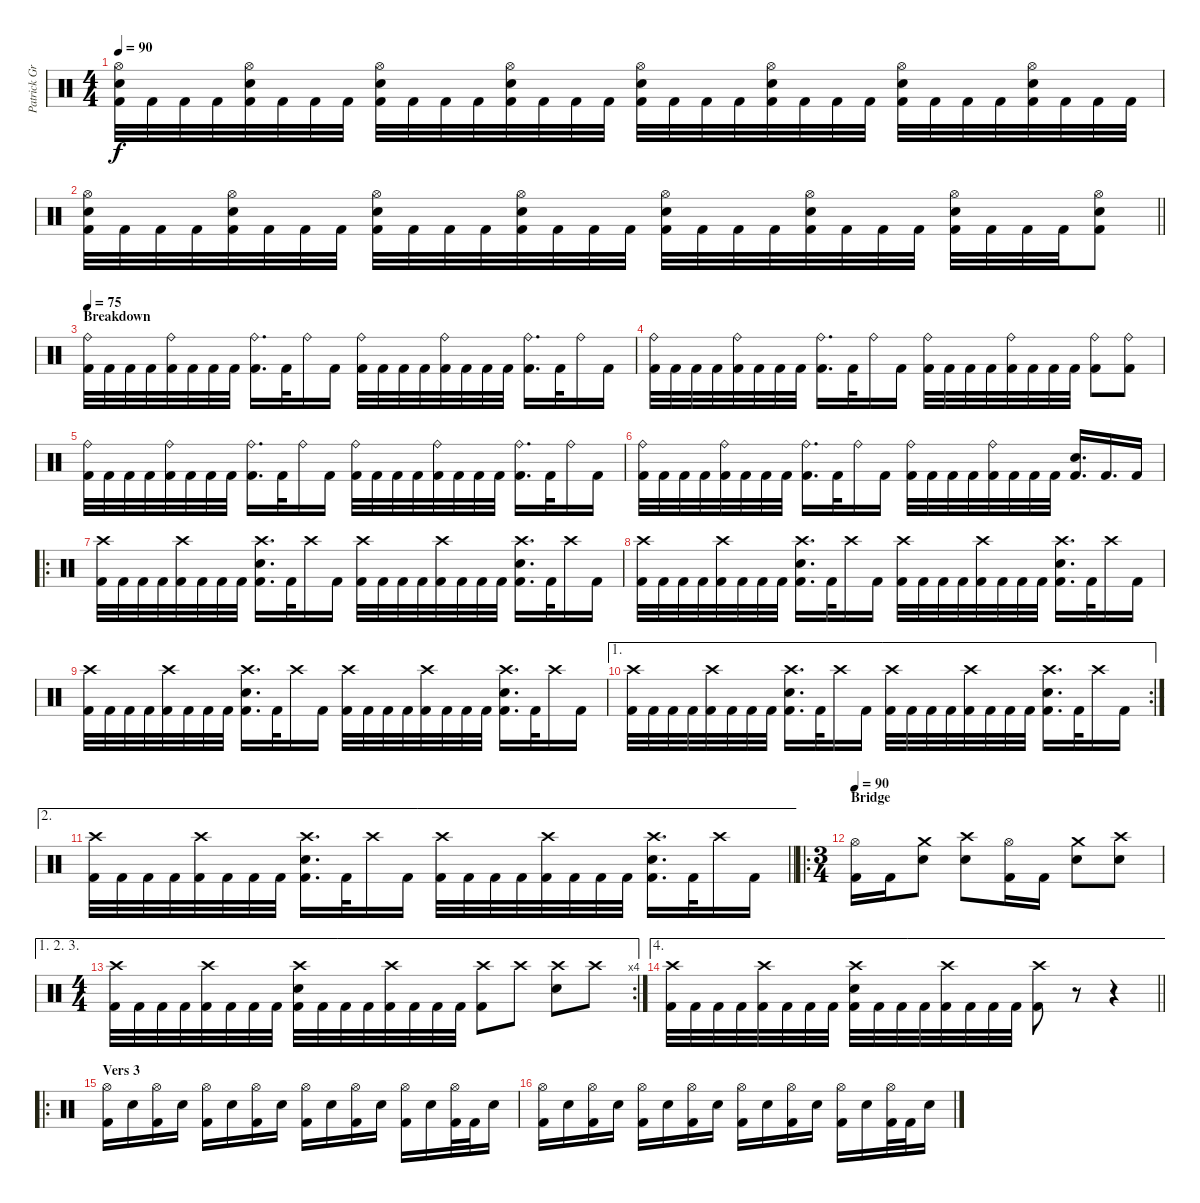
\track ("Patrick Grün - Drums" "Patrick Gr") {instrument percussion}
\staff {score}
\articulation defaults
\ts (4 4)
\tempo 90
\clef neutral
\ks c
("Hi-Hat (open)" "Electric Snare (hit)" "Kick (hit) 2").32{dy f} "Kick (hit) 2".32 "Kick (hit) 2".32 "Kick (hit) 2".32 ("Hi-Hat (open)" "Electric Snare (hit)" "Kick (hit) 2").32 "Kick (hit) 2".32 "Kick (hit) 2".32 "Kick (hit) 2".32 ("Hi-Hat (open)" "Electric Snare (hit)" "Kick (hit) 2").32 "Kick (hit) 2".32 "Kick (hit) 2".32 "Kick (hit) 2".32 ("Hi-Hat (open)" "Electric Snare (hit)" "Kick (hit) 2").32 "Kick (hit) 2".32 "Kick (hit) 2".32 "Kick (hit) 2".32 ("Hi-Hat (open)" "Electric Snare (hit)" "Kick (hit) 2").32 "Kick (hit) 2".32 "Kick (hit) 2".32 "Kick (hit) 2".32 ("Hi-Hat (open)" "Electric Snare (hit)" "Kick (hit) 2").32 "Kick (hit) 2".32 "Kick (hit) 2".32 "Kick (hit) 2".32 ("Hi-Hat (open)" "Electric Snare (hit)" "Kick (hit) 2").32 "Kick (hit) 2".32 "Kick (hit) 2".32 "Kick (hit) 2".32 ("Hi-Hat (open)" "Electric Snare (hit)" "Kick (hit) 2").32 "Kick (hit) 2".32 "Kick (hit) 2".32 "Kick (hit) 2".32 |
\barLineRight lightlight
("Hi-Hat (open)" "Electric Snare (hit)" "Kick (hit) 2").32 "Kick (hit) 2".32 "Kick (hit) 2".32 "Kick (hit) 2".32 ("Hi-Hat (open)" "Electric Snare (hit)" "Kick (hit) 2").32 "Kick (hit) 2".32 "Kick (hit) 2".32 "Kick (hit) 2".32 ("Hi-Hat (open)" "Electric Snare (hit)" "Kick (hit) 2").32 "Kick (hit) 2".32 "Kick (hit) 2".32 "Kick (hit) 2".32 ("Hi-Hat (open)" "Electric Snare (hit)" "Kick (hit) 2").32 "Kick (hit) 2".32 "Kick (hit) 2".32 "Kick (hit) 2".32 ("Hi-Hat (open)" "Electric Snare (hit)" "Kick (hit) 2").32 "Kick (hit) 2".32 "Kick (hit) 2".32 "Kick (hit) 2".32 ("Hi-Hat (open)" "Electric Snare (hit)" "Kick (hit) 2").32 "Kick (hit) 2".32 "Kick (hit) 2".32 "Kick (hit) 2".32 ("Hi-Hat (open)" "Electric Snare (hit)" "Kick (hit) 2").32 "Kick (hit) 2".32 "Kick (hit) 2".32 "Kick (hit) 2".32 ("Hi-Hat (open)" "Electric Snare (hit)" "Kick (hit) 2").8 |
\section ("" "Breakdown")
\tempo 75
("Ride (bell)" "Kick (hit) 2").32 "Kick (hit) 2".32 "Kick (hit) 2".32 "Kick (hit) 2".32 ("Ride (bell)" "Kick (hit) 2").32 "Kick (hit) 2".32 "Kick (hit) 2".32 "Kick (hit) 2".32 ("Ride (bell)" "Kick (hit) 2").16{d} "Kick (hit) 2".32 "Ride (bell)".16 "Kick (hit) 2".16 ("Ride (bell)" "Kick (hit) 2").32 "Kick (hit) 2".32 "Kick (hit) 2".32 "Kick (hit) 2".32 ("Ride (bell)" "Kick (hit) 2").32 "Kick (hit) 2".32 "Kick (hit) 2".32 "Kick (hit) 2".32 ("Ride (bell)" "Kick (hit) 2").16{d} "Kick (hit) 2".32 "Ride (bell)".16 "Kick (hit) 2".16 |
("Ride (bell)" "Kick (hit) 2").32 "Kick (hit) 2".32 "Kick (hit) 2".32 "Kick (hit) 2".32 ("Ride (bell)" "Kick (hit) 2").32 "Kick (hit) 2".32 "Kick (hit) 2".32 "Kick (hit) 2".32 ("Ride (bell)" "Kick (hit) 2").16{d} "Kick (hit) 2".32 "Ride (bell)".16 "Kick (hit) 2".16 ("Ride (bell)" "Kick (hit) 2").32 "Kick (hit) 2".32 "Kick (hit) 2".32 "Kick (hit) 2".32 ("Ride (bell)" "Kick (hit) 2").32 "Kick (hit) 2".32 "Kick (hit) 2".32 "Kick (hit) 2".32 ("Ride (bell)" "Kick (hit) 2").8 ("Ride (bell)" "Kick (hit) 2").8 |
("Ride (bell)" "Kick (hit) 2").32 "Kick (hit) 2".32 "Kick (hit) 2".32 "Kick (hit) 2".32 ("Ride (bell)" "Kick (hit) 2").32 "Kick (hit) 2".32 "Kick (hit) 2".32 "Kick (hit) 2".32 ("Ride (bell)" "Kick (hit) 2").16{d} "Kick (hit) 2".32 "Ride (bell)".16 "Kick (hit) 2".16 ("Ride (bell)" "Kick (hit) 2").32 "Kick (hit) 2".32 "Kick (hit) 2".32 "Kick (hit) 2".32 ("Ride (bell)" "Kick (hit) 2").32 "Kick (hit) 2".32 "Kick (hit) 2".32 "Kick (hit) 2".32 ("Ride (bell)" "Kick (hit) 2").16{d} "Kick (hit) 2".32 "Ride (bell)".16 "Kick (hit) 2".16 |
("Ride (bell)" "Kick (hit) 2").32 "Kick (hit) 2".32 "Kick (hit) 2".32 "Kick (hit) 2".32 ("Ride (bell)" "Kick (hit) 2").32 "Kick (hit) 2".32 "Kick (hit) 2".32 "Kick (hit) 2".32 ("Ride (bell)" "Kick (hit) 2").16{d} "Kick (hit) 2".32 "Ride (bell)".16 "Kick (hit) 2".16 ("Ride (bell)" "Kick (hit) 2").32 "Kick (hit) 2".32 "Kick (hit) 2".32 "Kick (hit) 2".32 ("Ride (bell)" "Kick (hit) 2").32 "Kick (hit) 2".32 "Kick (hit) 2".32 "Kick (hit) 2".32 ("Electric Snare (hit)" "Kick (hit) 2").16{d} "Kick (hit) 2".16{d} "Kick (hit) 2".16 |
\ro
("Crash high (hit)" "Kick (hit) 2").32 "Kick (hit) 2".32 "Kick (hit) 2".32 "Kick (hit) 2".32 ("Crash high (hit)" "Kick (hit) 2").32 "Kick (hit) 2".32 "Kick (hit) 2".32 "Kick (hit) 2".32 ("Crash high (hit)" "Electric Snare (hit)" "Kick (hit) 2").16{d} "Kick (hit) 2".32 "Crash high (hit)".16 "Kick (hit) 2".16 ("Crash high (hit)" "Kick (hit) 2").32 "Kick (hit) 2".32 "Kick (hit) 2".32 "Kick (hit) 2".32 ("Crash high (hit)" "Kick (hit) 2").32 "Kick (hit) 2".32 "Kick (hit) 2".32 "Kick (hit) 2".32 ("Crash high (hit)" "Electric Snare (hit)" "Kick (hit) 2").16{d} "Kick (hit) 2".32 "Crash high (hit)".16 "Kick (hit) 2".16 |
("Crash high (hit)" "Kick (hit) 2").32 "Kick (hit) 2".32 "Kick (hit) 2".32 "Kick (hit) 2".32 ("Crash high (hit)" "Kick (hit) 2").32 "Kick (hit) 2".32 "Kick (hit) 2".32 "Kick (hit) 2".32 ("Crash high (hit)" "Electric Snare (hit)" "Kick (hit) 2").16{d} "Kick (hit) 2".32 "Crash high (hit)".16 "Kick (hit) 2".16 ("Crash high (hit)" "Kick (hit) 2").32 "Kick (hit) 2".32 "Kick (hit) 2".32 "Kick (hit) 2".32 ("Crash high (hit)" "Kick (hit) 2").32 "Kick (hit) 2".32 "Kick (hit) 2".32 "Kick (hit) 2".32 ("Crash high (hit)" "Electric Snare (hit)" "Kick (hit) 2").16{d} "Kick (hit) 2".32 "Crash high (hit)".16 "Kick (hit) 2".16 |
("Crash high (hit)" "Kick (hit) 2").32 "Kick (hit) 2".32 "Kick (hit) 2".32 "Kick (hit) 2".32 ("Crash high (hit)" "Kick (hit) 2").32 "Kick (hit) 2".32 "Kick (hit) 2".32 "Kick (hit) 2".32 ("Crash high (hit)" "Electric Snare (hit)" "Kick (hit) 2").16{d} "Kick (hit) 2".32 "Crash high (hit)".16 "Kick (hit) 2".16 ("Crash high (hit)" "Kick (hit) 2").32 "Kick (hit) 2".32 "Kick (hit) 2".32 "Kick (hit) 2".32 ("Crash high (hit)" "Kick (hit) 2").32 "Kick (hit) 2".32 "Kick (hit) 2".32 "Kick (hit) 2".32 ("Crash high (hit)" "Electric Snare (hit)" "Kick (hit) 2").16{d} "Kick (hit) 2".32 "Crash high (hit)".16 "Kick (hit) 2".16 |
\ae 1
\rc 2
("Crash high (hit)" "Kick (hit) 2").32 "Kick (hit) 2".32 "Kick (hit) 2".32 "Kick (hit) 2".32 ("Crash high (hit)" "Kick (hit) 2").32 "Kick (hit) 2".32 "Kick (hit) 2".32 "Kick (hit) 2".32 ("Crash high (hit)" "Electric Snare (hit)" "Kick (hit) 2").16{d} "Kick (hit) 2".32 "Crash high (hit)".16 "Kick (hit) 2".16 ("Crash high (hit)" "Kick (hit) 2").32 "Kick (hit) 2".32 "Kick (hit) 2".32 "Kick (hit) 2".32 ("Crash high (hit)" "Kick (hit) 2").32 "Kick (hit) 2".32 "Kick (hit) 2".32 "Kick (hit) 2".32 ("Crash high (hit)" "Electric Snare (hit)" "Kick (hit) 2").16{d} "Kick (hit) 2".32 "Crash high (hit)".16 "Kick (hit) 2".16 |
\ae 2
\barLineRight lightlight
("Crash high (hit)" "Kick (hit) 2").32 "Kick (hit) 2".32 "Kick (hit) 2".32 "Kick (hit) 2".32 ("Crash high (hit)" "Kick (hit) 2").32 "Kick (hit) 2".32 "Kick (hit) 2".32 "Kick (hit) 2".32 ("Crash high (hit)" "Electric Snare (hit)" "Kick (hit) 2").16{d} "Kick (hit) 2".32 "Crash high (hit)".16 "Kick (hit) 2".16 ("Crash high (hit)" "Kick (hit) 2").32 "Kick (hit) 2".32 "Kick (hit) 2".32 "Kick (hit) 2".32 ("Crash high (hit)" "Kick (hit) 2").32 "Kick (hit) 2".32 "Kick (hit) 2".32 "Kick (hit) 2".32 ("Crash high (hit)" "Electric Snare (hit)" "Kick (hit) 2").16{d} "Kick (hit) 2".32 "Crash high (hit)".16 "Kick (hit) 2".16 |
\ro
\ts (3 4)
\section ("" "Bridge")
\tempo 90
("Hi-Hat (open)" "Kick (hit) 2").16 "Kick (hit) 2".16 ("Crash medium (hit)" "Electric Snare (hit)").8 ("Crash high (hit)" "Electric Snare (hit)").8 ("Hi-Hat (open)" "Kick (hit) 2").16 "Kick (hit) 2".16 ("Crash medium (hit)" "Electric Snare (hit)").8 ("Crash high (hit)" "Electric Snare (hit)").8 |
\ae (1 2 3)
\rc 4
\ts (4 4)
("Crash high (hit)" "Kick (hit) 2").32 "Kick (hit) 2".32 "Kick (hit) 2".32 "Kick (hit) 2".32 ("Crash high (hit)" "Kick (hit) 2").32 "Kick (hit) 2".32 "Kick (hit) 2".32 "Kick (hit) 2".32 ("Crash high (hit)" "Electric Snare (hit)" "Kick (hit) 2").32 "Kick (hit) 2".32 "Kick (hit) 2".32 "Kick (hit) 2".32 ("Crash high (hit)" "Kick (hit) 2").32 "Kick (hit) 2".32 "Kick (hit) 2".32 "Kick (hit) 2".32 ("Crash high (hit)" "Kick (hit) 2").8 "Crash high (hit)".8 ("Crash high (hit)" "Electric Snare (hit)").8 "Crash high (hit)".8 |
\ae 4
\barLineRight lightlight
("Crash high (hit)" "Kick (hit) 2").32 "Kick (hit) 2".32 "Kick (hit) 2".32 "Kick (hit) 2".32 ("Crash high (hit)" "Kick (hit) 2").32 "Kick (hit) 2".32 "Kick (hit) 2".32 "Kick (hit) 2".32 ("Crash high (hit)" "Electric Snare (hit)" "Kick (hit) 2").32 "Kick (hit) 2".32 "Kick (hit) 2".32 "Kick (hit) 2".32 ("Crash high (hit)" "Kick (hit) 2").32 "Kick (hit) 2".32 "Kick (hit) 2".32 "Kick (hit) 2".32 ("Crash high (hit)" "Kick (hit) 2").8 r.8 r.4 |
\ro
\section ("" "Vers 3")
("Hi-Hat (open)" "Kick (hit) 2").16 "Electric Snare (hit)".16 ("Hi-Hat (open)" "Kick (hit) 2").16 "Electric Snare (hit)".16 ("Hi-Hat (open)" "Kick (hit) 2").16 "Electric Snare (hit)".16 ("Hi-Hat (open)" "Kick (hit) 2").16 "Electric Snare (hit)".16 ("Hi-Hat (open)" "Kick (hit) 2").16 "Electric Snare (hit)".16 ("Hi-Hat (open)" "Kick (hit) 2").16 "Electric Snare (hit)".16 ("Hi-Hat (open)" "Kick (hit) 2").16 "Electric Snare (hit)".16 ("Hi-Hat (open)" "Kick (hit) 2").32 "Kick (hit) 2".32 "Electric Snare (hit)".16 |
("Hi-Hat (open)" "Kick (hit) 2").16 "Electric Snare (hit)".16 ("Hi-Hat (open)" "Kick (hit) 2").16 "Electric Snare (hit)".16 ("Hi-Hat (open)" "Kick (hit) 2").16 "Electric Snare (hit)".16 ("Hi-Hat (open)" "Kick (hit) 2").16 "Electric Snare (hit)".16 ("Hi-Hat (open)" "Kick (hit) 2").16 "Electric Snare (hit)".16 ("Hi-Hat (open)" "Kick (hit) 2").16 "Electric Snare (hit)".16 ("Hi-Hat (open)" "Kick (hit) 2").16 "Electric Snare (hit)".16 ("Hi-Hat (open)" "Kick (hit) 2").32 "Kick (hit) 2".32 "Electric Snare (hit)".16
